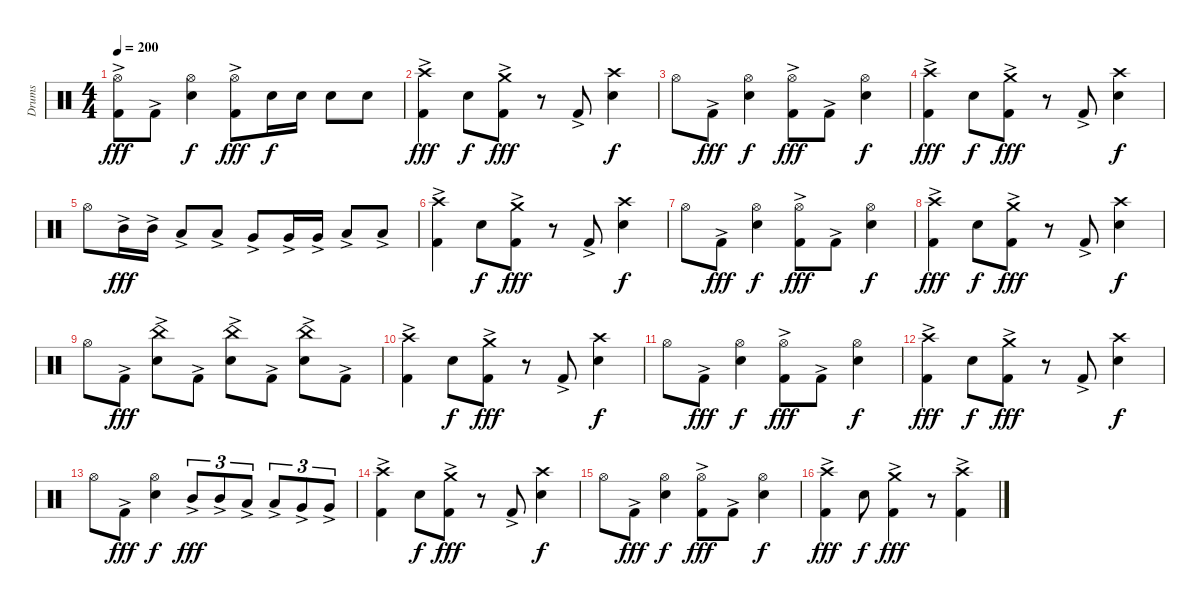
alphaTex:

\track ("Drums" "Drums") {instrument percussion}
\staff {score}
\articulation defaults
\ts (4 4)
\tempo 200
\clef neutral
\ks c
("Hi-Hat (open)" "Kick (hit) 2"{ac}).8{dy fff} "Kick (hit) 2"{ac}.8 ("Hi-Hat (open)" "Snare (hit) 2").4{dy f} ("Hi-Hat (open)" "Kick (hit) 2"{ac}).8{dy fff} "Snare (hit) 2".16{dy f} "Snare (hit) 2".16 "Snare (hit) 2".8 "Snare (hit) 2".8 |
("Crash high (hit)" "Kick (hit) 2"{ac}).4{dy fff} "Snare (hit) 2".8{dy f} ("Crash medium (hit)" "Kick (hit) 2"{ac}).8{dy fff} r.8 "Kick (hit) 2"{ac}.8 ("Crash high (hit)" "Snare (hit) 2").4{dy f} |
"Hi-Hat (open)".8 "Kick (hit) 2"{ac}.8{dy fff} ("Hi-Hat (open)" "Snare (hit) 2").4{dy f} ("Hi-Hat (open)" "Kick (hit) 2"{ac}).8{dy fff} "Kick (hit) 2"{ac}.8 ("Hi-Hat (open)" "Snare (hit) 2").4{dy f} |
("Crash high (hit)" "Kick (hit) 2"{ac}).4{dy fff} "Snare (hit) 2".8{dy f} ("Crash medium (hit)" "Kick (hit) 2"{ac}).8{dy fff} r.8 "Kick (hit) 2"{ac}.8 ("Crash high (hit)" "Snare (hit) 2").4{dy f} |
"Hi-Hat (open)".8 "Mid Tom (hit)"{ac}.16{dy fff} "Mid Tom (hit)"{ac}.16 "Low Tom (hit)"{ac}.8 "Low Tom (hit)"{ac}.8 "Very Low Tom (hit)"{ac}.8 "Very Low Tom (hit)"{ac}.16 "Very Low Tom (hit)"{ac}.16 "Low Floor Tom (hit)"{ac}.8 "Low Floor Tom (hit)"{ac}.8 |
("Crash high (hit)" "Kick (hit) 2"{ac}).4 "Snare (hit) 2".8{dy f} ("Crash medium (hit)" "Kick (hit) 2"{ac}).8{dy fff} r.8 "Kick (hit) 2"{ac}.8 ("Crash high (hit)" "Snare (hit) 2").4{dy f} |
"Hi-Hat (open)".8 "Kick (hit) 2"{ac}.8{dy fff} ("Hi-Hat (open)" "Snare (hit) 2").4{dy f} ("Hi-Hat (open)" "Kick (hit) 2"{ac}).8{dy fff} "Kick (hit) 2"{ac}.8 ("Hi-Hat (open)" "Snare (hit) 2").4{dy f} |
("Crash high (hit)" "Kick (hit) 2"{ac}).4{dy fff} "Snare (hit) 2".8{dy f} ("Crash medium (hit)" "Kick (hit) 2"{ac}).8{dy fff} r.8 "Kick (hit) 2"{ac}.8 ("Crash high (hit)" "Snare (hit) 2").4{dy f} |
"Hi-Hat (open)".8 "Kick (hit) 2"{ac}.8{dy fff} ("China (hit)"{ac} "Snare (hit) 2").8 "Kick (hit) 2"{ac}.8 ("China (hit)"{ac} "Snare (hit) 2").8 "Kick (hit) 2"{ac}.8 ("China (hit)"{ac} "Snare (hit) 2").8 "Kick (hit) 2"{ac}.8 |
("Crash high (hit)" "Kick (hit) 2"{ac}).4 "Snare (hit) 2".8{dy f} ("Crash medium (hit)" "Kick (hit) 2"{ac}).8{dy fff} r.8 "Kick (hit) 2"{ac}.8 ("Crash high (hit)" "Snare (hit) 2").4{dy f} |
"Hi-Hat (open)".8 "Kick (hit) 2"{ac}.8{dy fff} ("Hi-Hat (open)" "Snare (hit) 2").4{dy f} ("Hi-Hat (open)" "Kick (hit) 2"{ac}).8{dy fff} "Kick (hit) 2"{ac}.8 ("Hi-Hat (open)" "Snare (hit) 2").4{dy f} |
("Crash high (hit)" "Kick (hit) 2"{ac}).4{dy fff} "Snare (hit) 2".8{dy f} ("Crash medium (hit)" "Kick (hit) 2"{ac}).8{dy fff} r.8 "Kick (hit) 2"{ac}.8 ("Crash high (hit)" "Snare (hit) 2").4{dy f} |
"Hi-Hat (open)".8 "Kick (hit) 2"{ac}.8{dy fff} ("Hi-Hat (open)" "Snare (hit) 2").4{dy f} "Mid Tom (hit)"{ac}.8{tu (3 2) dy fff} "Mid Tom (hit)"{ac}.8{tu (3 2)} "Low Tom (hit)"{ac}.8{tu (3 2)} "Low Tom (hit)"{ac}.8{tu (3 2)} "Very Low Tom (hit)"{ac}.8{tu (3 2)} "Very Low Tom (hit)"{ac}.8{tu (3 2)} |
("Crash high (hit)" "Kick (hit) 2"{ac}).4 "Snare (hit) 2".8{dy f} ("Crash medium (hit)" "Kick (hit) 2"{ac}).8{dy fff} r.8 "Kick (hit) 2"{ac}.8 ("Crash high (hit)" "Snare (hit) 2").4{dy f} |
"Hi-Hat (open)".8 "Kick (hit) 2"{ac}.8{dy fff} ("Hi-Hat (open)" "Snare (hit) 2").4{dy f} ("Hi-Hat (open)" "Kick (hit) 2"{ac}).8{dy fff} "Kick (hit) 2"{ac}.8 ("Hi-Hat (open)" "Snare (hit) 2").4{dy f} |
("Crash high (hit)" "Kick (hit) 2"{ac}).4{dy fff} "Snare (hit) 2".8{dy f} ("Crash medium (hit)" "Kick (hit) 2"{ac}).4{dy fff} r.8 ("Crash high (hit)" "Kick (hit) 2"{ac}).4
